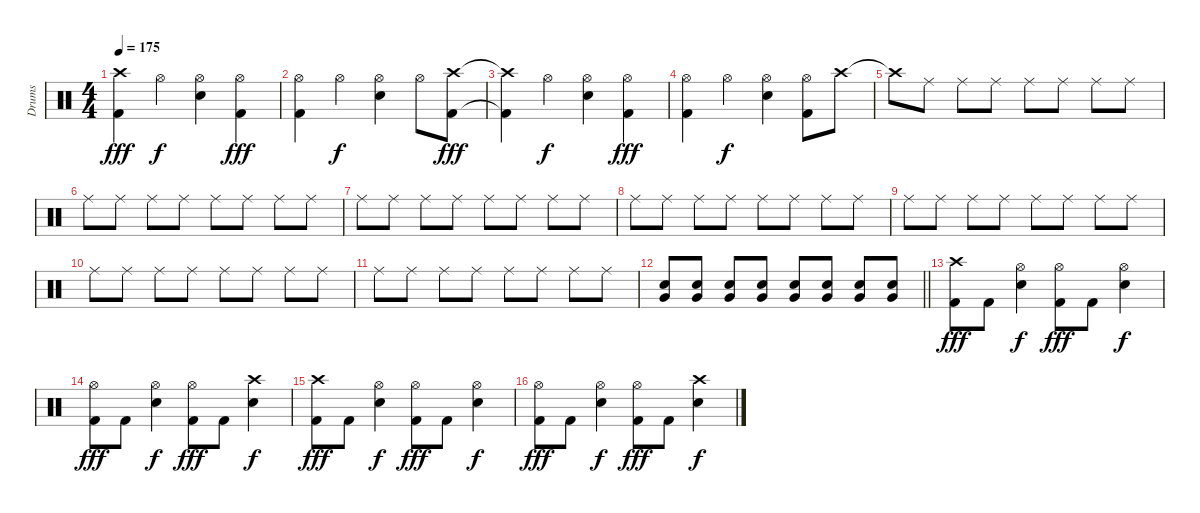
\track ("Drums" "Drums") {instrument percussion}
\staff {score}
\articulation defaults
\ts (4 4)
\tempo 175
\clef neutral
\ks c
("Crash high (hit)" "Kick (hit) 2").4{dy fff} "Hi-Hat (open)".4{dy f} ("Hi-Hat (open)" "Electric Snare (hit)").4 ("Hi-Hat (open)" "Kick (hit) 2").4{dy fff} |
("Hi-Hat (open)" "Kick (hit) 2").4 "Hi-Hat (open)".4{dy f} ("Hi-Hat (open)" "Electric Snare (hit)").4 "Hi-Hat (open)".8 ("Crash high (hit)" "Kick (hit) 2").8{dy fff} |
("Crash high (hit)"{t} "Kick (hit) 2"{t}).4 "Hi-Hat (open)".4{dy f} ("Hi-Hat (open)" "Electric Snare (hit)").4 ("Hi-Hat (open)" "Kick (hit) 2").4{dy fff} |
("Hi-Hat (open)" "Kick (hit) 2").4 "Hi-Hat (open)".4{dy f} ("Hi-Hat (open)" "Electric Snare (hit)").4 ("Hi-Hat (open)" "Kick (hit) 2").8 "Crash high (hit)".8 |
"Crash high (hit)"{t}.8 "Ride (middle)".8 "Ride (middle)".8 "Ride (middle)".8 "Ride (middle)".8 "Ride (middle)".8 "Ride (middle)".8 "Ride (middle)".8 |
"Ride (middle)".8 "Ride (middle)".8 "Ride (middle)".8 "Ride (middle)".8 "Ride (middle)".8 "Ride (middle)".8 "Ride (middle)".8 "Ride (middle)".8 |
"Ride (middle)".8 "Ride (middle)".8 "Ride (middle)".8 "Ride (middle)".8 "Ride (middle)".8 "Ride (middle)".8 "Ride (middle)".8 "Ride (middle)".8 |
"Ride (middle)".8 "Ride (middle)".8 "Ride (middle)".8 "Ride (middle)".8 "Ride (middle)".8 "Ride (middle)".8 "Ride (middle)".8 "Ride (middle)".8 |
"Ride (middle)".8 "Ride (middle)".8 "Ride (middle)".8 "Ride (middle)".8 "Ride (middle)".8 "Ride (middle)".8 "Ride (middle)".8 "Ride (middle)".8 |
"Ride (middle)".8 "Ride (middle)".8 "Ride (middle)".8 "Ride (middle)".8 "Ride (middle)".8 "Ride (middle)".8 "Ride (middle)".8 "Ride (middle)".8 |
"Ride (middle)".8 "Ride (middle)".8 "Ride (middle)".8 "Ride (middle)".8 "Ride (middle)".8 "Ride (middle)".8 "Ride (middle)".8 "Ride (middle)".8 |
\barLineRight lightlight
("Very Low Tom (hit)" "Electric Snare (hit)").8 ("Very Low Tom (hit)" "Electric Snare (hit)").8 ("Very Low Tom (hit)" "Electric Snare (hit)").8 ("Very Low Tom (hit)" "Electric Snare (hit)").8 ("Very Low Tom (hit)" "Electric Snare (hit)").8 ("Very Low Tom (hit)" "Electric Snare (hit)").8 ("Very Low Tom (hit)" "Electric Snare (hit)").8 ("Very Low Tom (hit)" "Electric Snare (hit)").8 |
("Crash high (hit)" "Kick (hit) 2").8{dy fff} "Kick (hit) 2".8 ("Hi-Hat (open)" "Electric Snare (hit)").4{dy f} ("Hi-Hat (open)" "Kick (hit) 2").8{dy fff} "Kick (hit) 2".8 ("Hi-Hat (open)" "Electric Snare (hit)").4{dy f} |
("Hi-Hat (open)" "Kick (hit) 2").8{dy fff} "Kick (hit) 2".8 ("Hi-Hat (open)" "Electric Snare (hit)").4{dy f} ("Hi-Hat (open)" "Kick (hit) 2").8{dy fff} "Kick (hit) 2".8 ("Crash high (hit)" "Electric Snare (hit)").4{dy f} |
("Crash high (hit)" "Kick (hit) 2").8{dy fff} "Kick (hit) 2".8 ("Hi-Hat (open)" "Electric Snare (hit)").4{dy f} ("Hi-Hat (open)" "Kick (hit) 2").8{dy fff} "Kick (hit) 2".8 ("Hi-Hat (open)" "Electric Snare (hit)").4{dy f} |
("Hi-Hat (open)" "Kick (hit) 2").8{dy fff} "Kick (hit) 2".8 ("Hi-Hat (open)" "Electric Snare (hit)").4{dy f} ("Hi-Hat (open)" "Kick (hit) 2").8{dy fff} "Kick (hit) 2".8 ("Crash high (hit)" "Electric Snare (hit)").4{dy f}
